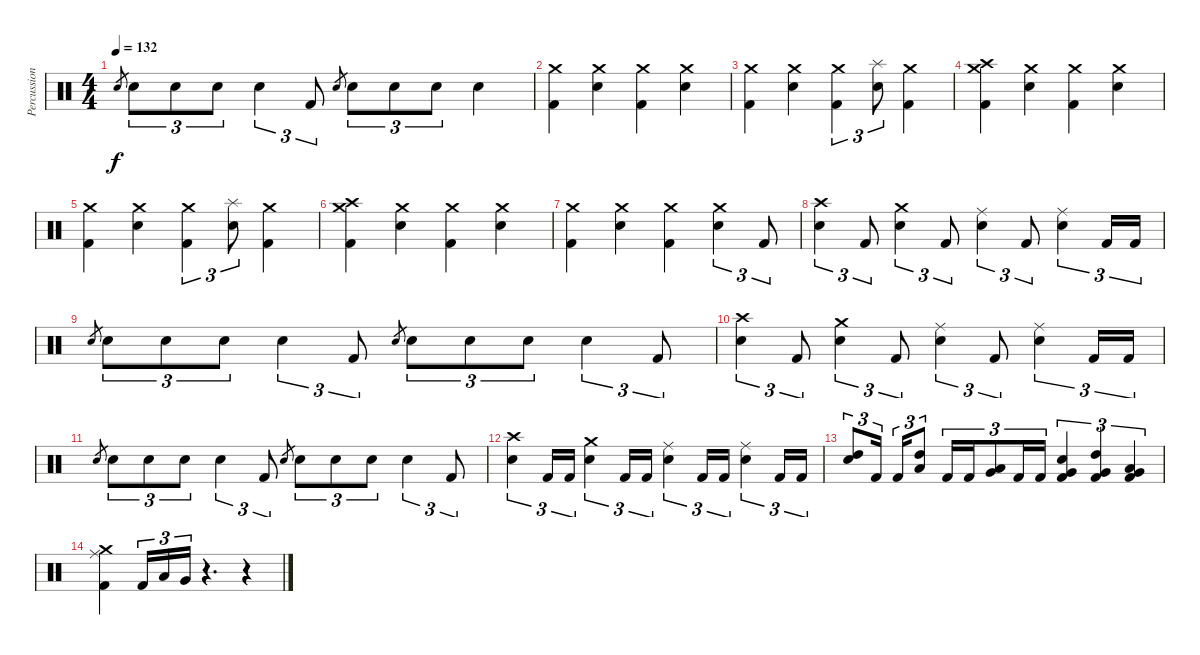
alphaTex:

\track ("Percussion" "Percussion") {instrument percussion}
\staff {score}
\articulation defaults
\ts (4 4)
\tempo 132
\clef neutral
\ks c "Snare (hit) 2".8{gr dy f} "Snare (hit) 2".8{tu (3 2)} "Snare (hit) 2".8{tu (3 2)} "Snare (hit) 2".8{tu (3 2)} "Snare (hit) 2".4{tu (3 2)} "Kick (hit) 2".8{tu (3 2)} "Snare (hit) 2".8{gr} "Snare (hit) 2".8{tu (3 2)} "Snare (hit) 2".8{tu (3 2)} "Snare (hit) 2".8{tu (3 2)} "Snare (hit) 2".4
|
("Crash medium (hit)" "Kick (hit) 2").4 ("Crash medium (hit)" "Snare (hit) 2").4 ("Crash medium (hit)" "Kick (hit) 2").4 ("Crash medium (hit)" "Snare (hit) 2").4 |
("Crash medium (hit)" "Kick (hit) 2").4 ("Crash medium (hit)" "Snare (hit) 2").4 ("Crash medium (hit)" "Kick (hit) 2").4{tu (3 2)} ("Splash (hit)" "Snare (hit) 2").8{tu (3 2)} ("Crash medium (hit)" "Kick (hit) 2").4 |
("Crash medium (hit)" "Crash high (hit)" "Kick (hit) 2").4 ("Crash medium (hit)" "Snare (hit) 2").4 ("Crash medium (hit)" "Kick (hit) 2").4 ("Crash medium (hit)" "Snare (hit) 2").4 |
("Crash medium (hit)" "Kick (hit) 2").4 ("Crash medium (hit)" "Snare (hit) 2").4 ("Crash medium (hit)" "Kick (hit) 2").4{tu (3 2)} ("Splash (hit)" "Snare (hit) 2").8{tu (3 2)} ("Crash medium (hit)" "Kick (hit) 2").4 |
("Crash medium (hit)" "Crash high (hit)" "Kick (hit) 2").4 ("Crash medium (hit)" "Snare (hit) 2").4 ("Crash medium (hit)" "Kick (hit) 2").4 ("Crash medium (hit)" "Snare (hit) 2").4 |
("Crash medium (hit)" "Kick (hit) 2").4 ("Crash medium (hit)" "Snare (hit) 2").4 ("Crash medium (hit)" "Kick (hit) 2").4 ("Crash medium (hit)" "Snare (hit) 2").4{tu (3 2)} "Kick (hit) 2".8{tu (3 2)} |
("Crash high (hit)" "Snare (hit) 2").4{tu (3 2)} "Kick (hit) 2".8{tu (3 2)} ("Crash medium (hit)" "Snare (hit) 2").4{tu (3 2)} "Kick (hit) 2".8{tu (3 2)} ("Ride (middle)" "Snare (hit) 2").4{tu (3 2)} "Kick (hit) 2".8{tu (3 2)} ("Ride (middle)" "Snare (hit) 2").4{tu (3 2)} "Kick (hit) 2".16{tu (3 2)} "Kick (hit) 2".16{tu (3 2)} |
"Snare (hit) 2".8{gr} "Snare (hit) 2".8{tu (3 2)} "Snare (hit) 2".8{tu (3 2)} "Snare (hit) 2".8{tu (3 2)} "Snare (hit) 2".4{tu (3 2)} "Kick (hit) 2".8{tu (3 2)} "Snare (hit) 2".8{gr} "Snare (hit) 2".8{tu (3 2)} "Snare (hit) 2".8{tu (3 2)} "Snare (hit) 2".8{tu (3 2)} "Snare (hit) 2".4{tu (3 2)} "Kick (hit) 2".8{tu (3 2)} |
("Crash high (hit)" "Snare (hit) 2").4{tu (3 2)} "Kick (hit) 2".8{tu (3 2)} ("Crash medium (hit)" "Snare (hit) 2").4{tu (3 2)} "Kick (hit) 2".8{tu (3 2)} ("Ride (middle)" "Snare (hit) 2").4{tu (3 2)} "Kick (hit) 2".8{tu (3 2)} ("Ride (middle)" "Snare (hit) 2").4{tu (3 2)} "Kick (hit) 2".16{tu (3 2)} "Kick (hit) 2".16{tu (3 2)} |
"Snare (hit) 2".8{gr} "Snare (hit) 2".8{tu (3 2)} "Snare (hit) 2".8{tu (3 2)} "Snare (hit) 2".8{tu (3 2)} "Snare (hit) 2".4{tu (3 2)} "Kick (hit) 2".8{tu (3 2)} "Snare (hit) 2".8{gr} "Snare (hit) 2".8{tu (3 2)} "Snare (hit) 2".8{tu (3 2)} "Snare (hit) 2".8{tu (3 2)} "Snare (hit) 2".4{tu (3 2)} "Kick (hit) 2".8{tu (3 2)} |
("Crash high (hit)" "Snare (hit) 2").4{tu (3 2)} "Kick (hit) 2".16{tu (3 2)} "Kick (hit) 2".16{tu (3 2)} ("Crash medium (hit)" "Snare (hit) 2").4{tu (3 2)} "Kick (hit) 2".16{tu (3 2)} "Kick (hit) 2".16{tu (3 2)} ("Ride (middle)" "Snare (hit) 2").4{tu (3 2)} "Kick (hit) 2".16{tu (3 2)} "Kick (hit) 2".16{tu (3 2)} ("Ride (middle)" "Snare (hit) 2").4{tu (3 2)} "Kick (hit) 2".16{tu (3 2)} "Kick (hit) 2".16{tu (3 2)} |
("High Tom (hit)" "Snare (hit) 2").8{tu (3 2)} "Kick (hit) 2".16{tu (3 2) beam splitsecondary} "Kick (hit) 2".16{tu (3 2)} ("Low Tom (hit)" "High Tom (hit)").8{tu (3 2)} "Kick (hit) 2".16{tu (3 2)} "Kick (hit) 2".16{tu (3 2)} ("Very Low Tom (hit)" "Low Tom (hit)").8{tu (3 2)} "Kick (hit) 2".16{tu (3 2)} "Kick (hit) 2".16{tu (3 2)} ("Snare (hit) 2" "Very Low Tom (hit)" "Kick (hit) 2").4{tu (3 2)} ("High Tom (hit)" "Very Low Tom (hit)" "Kick (hit) 2").4{tu (3 2)} ("Low Tom (hit)" "Very Low Tom (hit)" "Kick (hit) 2").4{tu (3 2)} |
("Ride (middle)" "Crash medium (hit)" "Kick (hit) 2").4 "Kick (hit) 2".16{tu (3 2)} "Low Tom (hit)".16{tu (3 2)} "Very Low Tom (hit)".16{tu (3 2)} r.4{d} r.4
